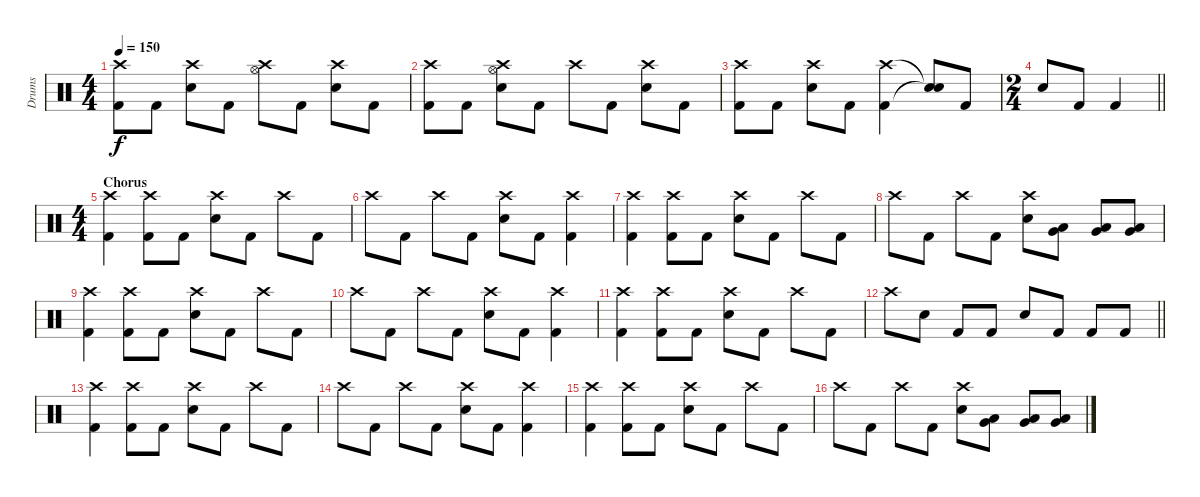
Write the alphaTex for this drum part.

\track ("Drums" "Drums") {instrument percussion}
\staff {score}
\articulation defaults
\ts (4 4)
\tempo 150
\clef neutral
\ks c
("Crash high (hit)" "Kick (hit) 2").8{dy f} "Kick (hit) 2".8 ("Crash high (hit)" "Snare (hit) 2").8 "Kick (hit) 2".8 ("Crash high (hit)" "Hi-Hat (open)").8 "Kick (hit) 2".8 ("Crash high (hit)" "Snare (hit) 2").8 "Kick (hit) 2".8 |
("Crash high (hit)" "Kick (hit) 2").8 "Kick (hit) 2".8 ("Crash high (hit)" "Hi-Hat (open)" "Snare (hit) 2").8 "Kick (hit) 2".8 "Crash high (hit)".8 "Kick (hit) 2".8 ("Crash high (hit)" "Snare (hit) 2").8 "Kick (hit) 2".8 |
("Crash high (hit)" "Kick (hit) 2").8 "Kick (hit) 2".8 ("Crash high (hit)" "Snare (hit) 2").8 "Kick (hit) 2".8 ("Crash high (hit)" "Kick (hit) 2").4 ("Snare (hit)"{t} "Snare (hit)"{t}).8 "Kick (hit) 2".8 |
\ts (2 4)
\barLineRight lightlight "Snare (hit) 2".8 "Kick (hit) 2".8 "Kick (hit) 2".4
|
\ts (4 4)
\section ("" "Chorus")
("Crash high (hit)" "Kick (hit) 2").4 ("Crash high (hit)" "Kick (hit) 2").8 "Kick (hit) 2".8 ("Crash high (hit)" "Snare (hit) 2").8 "Kick (hit) 2".8 "Crash high (hit)".8 "Kick (hit) 2".8 |
"Crash high (hit)".8 "Kick (hit) 2".8 "Crash high (hit)".8 "Kick (hit) 2".8 ("Crash high (hit)" "Snare (hit) 2").8 "Kick (hit) 2".8 ("Crash high (hit)" "Kick (hit) 2").4 |
("Crash high (hit)" "Kick (hit) 2").4 ("Crash high (hit)" "Kick (hit) 2").8 "Kick (hit) 2".8 ("Crash high (hit)" "Snare (hit) 2").8 "Kick (hit) 2".8 "Crash high (hit)".8 "Kick (hit) 2".8 |
"Crash high (hit)".8 "Kick (hit) 2".8 "Crash high (hit)".8 "Kick (hit) 2".8 ("Crash high (hit)" "Snare (hit) 2").8 ("Very Low Tom (hit)" "Low Tom (hit)").8 ("Very Low Tom (hit)" "Low Tom (hit)").8 ("Very Low Tom (hit)" "Low Tom (hit)").8 |
("Crash high (hit)" "Kick (hit) 2").4 ("Crash high (hit)" "Kick (hit) 2").8 "Kick (hit) 2".8 ("Crash high (hit)" "Snare (hit) 2").8 "Kick (hit) 2".8 "Crash high (hit)".8 "Kick (hit) 2".8 |
"Crash high (hit)".8 "Kick (hit) 2".8 "Crash high (hit)".8 "Kick (hit) 2".8 ("Crash high (hit)" "Snare (hit) 2").8 "Kick (hit) 2".8 ("Crash high (hit)" "Kick (hit) 2").4 |
("Crash high (hit)" "Kick (hit) 2").4 ("Crash high (hit)" "Kick (hit) 2").8 "Kick (hit) 2".8 ("Crash high (hit)" "Snare (hit) 2").8 "Kick (hit) 2".8 "Crash high (hit)".8 "Kick (hit) 2".8 |
\barLineRight lightlight "Crash high (hit)".8 "Snare (hit) 2".8 "Kick (hit) 2".8 "Kick (hit) 2".8 "Snare (hit) 2".8 "Kick (hit) 2".8 "Kick (hit) 2".8 "Kick (hit) 2".8
|
("Crash high (hit)" "Kick (hit) 2").4 ("Crash high (hit)" "Kick (hit) 2").8 "Kick (hit) 2".8 ("Crash high (hit)" "Snare (hit) 2").8 "Kick (hit) 2".8 "Crash high (hit)".8 "Kick (hit) 2".8 |
"Crash high (hit)".8 "Kick (hit) 2".8 "Crash high (hit)".8 "Kick (hit) 2".8 ("Crash high (hit)" "Snare (hit) 2").8 "Kick (hit) 2".8 ("Crash high (hit)" "Kick (hit) 2").4 |
("Crash high (hit)" "Kick (hit) 2").4 ("Crash high (hit)" "Kick (hit) 2").8 "Kick (hit) 2".8 ("Crash high (hit)" "Snare (hit) 2").8 "Kick (hit) 2".8 "Crash high (hit)".8 "Kick (hit) 2".8 |
"Crash high (hit)".8 "Kick (hit) 2".8 "Crash high (hit)".8 "Kick (hit) 2".8 ("Crash high (hit)" "Snare (hit) 2").8 ("Very Low Tom (hit)" "Low Tom (hit)").8 ("Very Low Tom (hit)" "Low Tom (hit)").8 ("Very Low Tom (hit)" "Low Tom (hit)").8
